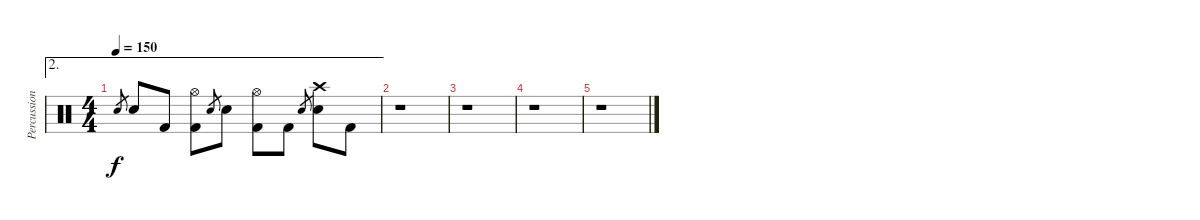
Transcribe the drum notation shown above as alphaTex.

\track ("Percussion" "Percussion") {instrument percussion}
\staff {score}
\articulation defaults
\ae 2
\ts (4 4)
\tempo 150
\clef neutral
\ks c "Electric Snare (hit)".8{gr dy f} "Electric Snare (hit)".8 "Kick (hit) 2".8
("Hi-Hat (open)" "Kick (hit) 2").8 "Electric Snare (hit)".8{gr} "Electric Snare (hit)".8 ("Hi-Hat (open)" "Kick (hit) 2").8 "Kick (hit) 2".8 "Electric Snare (hit)".8{gr} ("Crash high (hit)" "Electric Snare (hit)").8 "Kick (hit) 2".8 |
r.1 |
r.1 |
r.1 |
r.1
